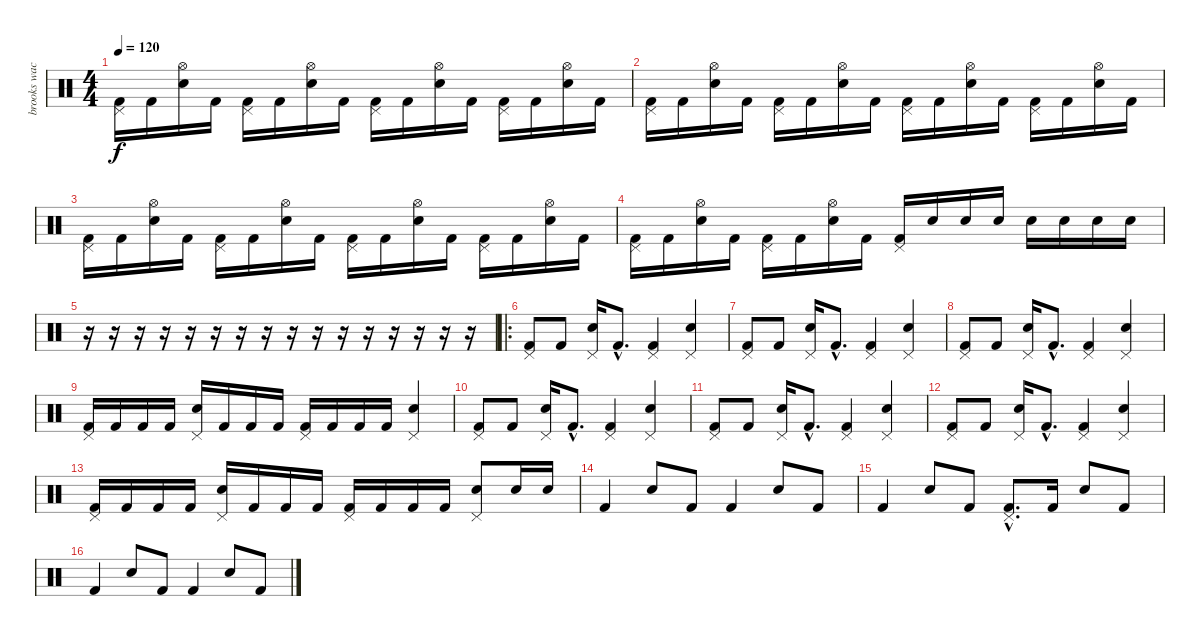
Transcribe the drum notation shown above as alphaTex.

\track ("brooks wackerman" "brooks wac") {instrument percussion}
\staff {score}
\articulation defaults
\ts (4 4)
\tempo 120
\clef neutral
\ks c
("Pedal Hi-Hat (hit)" "Kick (hit) 2").16{dy f} "Kick (hit) 2".16 ("Hi-Hat (open)" "Electric Snare (hit)").16 "Kick (hit) 2".16 ("Pedal Hi-Hat (hit)" "Kick (hit) 2").16 "Kick (hit) 2".16 ("Hi-Hat (open)" "Electric Snare (hit)").16 "Kick (hit) 2".16 ("Pedal Hi-Hat (hit)" "Kick (hit) 2").16 "Kick (hit) 2".16 ("Hi-Hat (open)" "Electric Snare (hit)").16 "Kick (hit) 2".16 ("Pedal Hi-Hat (hit)" "Kick (hit) 2").16 "Kick (hit) 2".16 ("Hi-Hat (open)" "Electric Snare (hit)").16 "Kick (hit) 2".16 |
("Pedal Hi-Hat (hit)" "Kick (hit) 2").16 "Kick (hit) 2".16 ("Hi-Hat (open)" "Electric Snare (hit)").16 "Kick (hit) 2".16 ("Pedal Hi-Hat (hit)" "Kick (hit) 2").16 "Kick (hit) 2".16 ("Hi-Hat (open)" "Electric Snare (hit)").16 "Kick (hit) 2".16 ("Pedal Hi-Hat (hit)" "Kick (hit) 2").16 "Kick (hit) 2".16 ("Hi-Hat (open)" "Electric Snare (hit)").16 "Kick (hit) 2".16 ("Pedal Hi-Hat (hit)" "Kick (hit) 2").16 "Kick (hit) 2".16 ("Hi-Hat (open)" "Electric Snare (hit)").16 "Kick (hit) 2".16 |
("Pedal Hi-Hat (hit)" "Kick (hit) 2").16 "Kick (hit) 2".16 ("Hi-Hat (open)" "Electric Snare (hit)").16 "Kick (hit) 2".16 ("Pedal Hi-Hat (hit)" "Kick (hit) 2").16 "Kick (hit) 2".16 ("Hi-Hat (open)" "Electric Snare (hit)").16 "Kick (hit) 2".16 ("Pedal Hi-Hat (hit)" "Kick (hit) 2").16 "Kick (hit) 2".16 ("Hi-Hat (open)" "Electric Snare (hit)").16 "Kick (hit) 2".16 ("Pedal Hi-Hat (hit)" "Kick (hit) 2").16 "Kick (hit) 2".16 ("Hi-Hat (open)" "Electric Snare (hit)").16 "Kick (hit) 2".16 |
("Pedal Hi-Hat (hit)" "Kick (hit) 2").16 "Kick (hit) 2".16 ("Hi-Hat (open)" "Electric Snare (hit)").16 "Kick (hit) 2".16 ("Pedal Hi-Hat (hit)" "Kick (hit) 2").16 "Kick (hit) 2".16 ("Hi-Hat (open)" "Electric Snare (hit)").16 "Kick (hit) 2".16 ("Pedal Hi-Hat (hit)" "Kick (hit) 2").16 "Electric Snare (hit)".16 "Electric Snare (hit)".16 "Electric Snare (hit)".16 "Electric Snare (hit)".16 "Electric Snare (hit)".16 "Electric Snare (hit)".16 "Electric Snare (hit)".16 |
r.16 r.16 r.16 r.16 r.16 r.16 r.16 r.16 r.16 r.16 r.16 r.16 r.16 r.16 r.16 r.16 |
\ro
("Pedal Hi-Hat (hit)" "Kick (hit) 2").8 "Kick (hit) 2".8 ("Pedal Hi-Hat (hit)" "Electric Snare (hit)").16 "Kick (hit) 2"{hac}.8{d} ("Pedal Hi-Hat (hit)" "Kick (hit) 2").4 ("Pedal Hi-Hat (hit)" "Electric Snare (hit)").4 |
("Pedal Hi-Hat (hit)" "Kick (hit) 2").8 "Kick (hit) 2".8 ("Pedal Hi-Hat (hit)" "Electric Snare (hit)").16 "Kick (hit) 2"{hac}.8{d} ("Pedal Hi-Hat (hit)" "Kick (hit) 2").4 ("Pedal Hi-Hat (hit)" "Electric Snare (hit)").4 |
("Pedal Hi-Hat (hit)" "Kick (hit) 2").8 "Kick (hit) 2".8 ("Pedal Hi-Hat (hit)" "Electric Snare (hit)").16 "Kick (hit) 2"{hac}.8{d} ("Pedal Hi-Hat (hit)" "Kick (hit) 2").4 ("Pedal Hi-Hat (hit)" "Electric Snare (hit)").4 |
("Pedal Hi-Hat (hit)" "Kick (hit) 2").16 "Kick (hit) 2".16 "Kick (hit) 2".16 "Kick (hit) 2".16 ("Pedal Hi-Hat (hit)" "Electric Snare (hit)").16 "Kick (hit) 2".16 "Kick (hit) 2".16 "Kick (hit) 2".16 ("Pedal Hi-Hat (hit)" "Kick (hit) 2").16 "Kick (hit) 2".16 "Kick (hit) 2".16 "Kick (hit) 2".16 ("Pedal Hi-Hat (hit)" "Electric Snare (hit)").4 |
("Pedal Hi-Hat (hit)" "Kick (hit) 2").8 "Kick (hit) 2".8 ("Pedal Hi-Hat (hit)" "Electric Snare (hit)").16 "Kick (hit) 2"{hac}.8{d} ("Pedal Hi-Hat (hit)" "Kick (hit) 2").4 ("Pedal Hi-Hat (hit)" "Electric Snare (hit)").4 |
("Pedal Hi-Hat (hit)" "Kick (hit) 2").8 "Kick (hit) 2".8 ("Pedal Hi-Hat (hit)" "Electric Snare (hit)").16 "Kick (hit) 2"{hac}.8{d} ("Pedal Hi-Hat (hit)" "Kick (hit) 2").4 ("Pedal Hi-Hat (hit)" "Electric Snare (hit)").4 |
("Pedal Hi-Hat (hit)" "Kick (hit) 2").8 "Kick (hit) 2".8 ("Pedal Hi-Hat (hit)" "Electric Snare (hit)").16 "Kick (hit) 2"{hac}.8{d} ("Pedal Hi-Hat (hit)" "Kick (hit) 2").4 ("Pedal Hi-Hat (hit)" "Electric Snare (hit)").4 |
("Pedal Hi-Hat (hit)" "Kick (hit) 2").16 "Kick (hit) 2".16 "Kick (hit) 2".16 "Kick (hit) 2".16 ("Pedal Hi-Hat (hit)" "Electric Snare (hit)").16 "Kick (hit) 2".16 "Kick (hit) 2".16 "Kick (hit) 2".16 ("Pedal Hi-Hat (hit)" "Kick (hit) 2").16 "Kick (hit) 2".16 "Kick (hit) 2".16 "Kick (hit) 2".16 ("Pedal Hi-Hat (hit)" "Electric Snare (hit)").8 "Electric Snare (hit)".16 "Electric Snare (hit)".16 |
"Kick (hit) 2".4 "Electric Snare (hit)".8 "Kick (hit) 2".8 "Kick (hit) 2".4 "Electric Snare (hit)".8 "Kick (hit) 2".8 |
"Kick (hit) 2".4 "Electric Snare (hit)".8 "Kick (hit) 2".8 ("Pedal Hi-Hat (hit)"{hac} "Kick (hit) 2"{hac}).8{d} "Kick (hit) 2".16 "Electric Snare (hit)".8 "Kick (hit) 2".8 |
"Kick (hit) 2".4 "Electric Snare (hit)".8 "Kick (hit) 2".8 "Kick (hit) 2".4 "Electric Snare (hit)".8 "Kick (hit) 2".8
